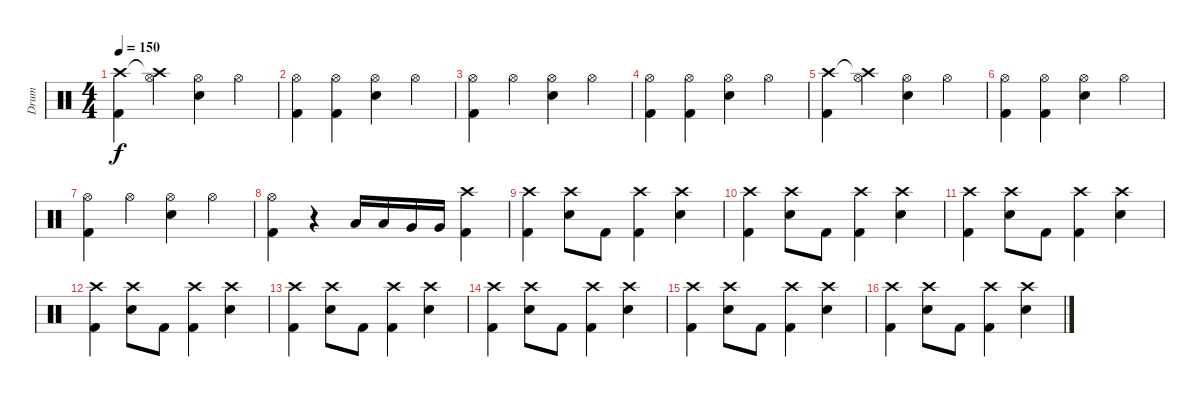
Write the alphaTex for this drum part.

\track ("Drum" "Drum") {instrument percussion}
\staff {score}
\articulation defaults
\ts (4 4)
\tempo 150
\clef neutral
\ks c
("Crash high (hit)" "Kick (hit) 2").4{dy f} ("Crash high (hit)"{t} "Hi-Hat (open)").4 ("Hi-Hat (open)" "Snare (hit) 2").4 "Hi-Hat (open)".4 |
("Hi-Hat (open)" "Kick (hit) 2").4 ("Hi-Hat (open)" "Kick (hit) 2").4 ("Hi-Hat (open)" "Snare (hit) 2").4 "Hi-Hat (open)".4 |
("Hi-Hat (open)" "Kick (hit) 2").4 "Hi-Hat (open)".4 ("Hi-Hat (open)" "Snare (hit) 2").4 "Hi-Hat (open)".4 |
("Hi-Hat (open)" "Kick (hit) 2").4 ("Hi-Hat (open)" "Kick (hit) 2").4 ("Hi-Hat (open)" "Snare (hit) 2").4 "Hi-Hat (open)".4 |
("Crash high (hit)" "Kick (hit) 2").4 ("Crash high (hit)"{t} "Hi-Hat (open)").4 ("Hi-Hat (open)" "Snare (hit) 2").4 "Hi-Hat (open)".4 |
("Hi-Hat (open)" "Kick (hit) 2").4 ("Hi-Hat (open)" "Kick (hit) 2").4 ("Hi-Hat (open)" "Snare (hit) 2").4 "Hi-Hat (open)".4 |
("Hi-Hat (open)" "Kick (hit) 2").4 "Hi-Hat (open)".4 ("Hi-Hat (open)" "Snare (hit) 2").4 "Hi-Hat (open)".4 |
("Hi-Hat (open)" "Kick (hit) 2").4 r.4 "Low Tom (hit)".16 "Low Tom (hit)".16 "Very Low Tom (hit)".16 "Very Low Tom (hit)".16 ("Crash high (hit)" "Kick (hit) 2").4 |
("Crash high (hit)" "Kick (hit) 2").4 ("Crash high (hit)" "Snare (hit) 2").8 "Kick (hit) 2".8 ("Crash high (hit)" "Kick (hit) 2").4 ("Crash high (hit)" "Snare (hit) 2").4 |
("Crash high (hit)" "Kick (hit) 2").4 ("Crash high (hit)" "Snare (hit) 2").8 "Kick (hit) 2".8 ("Crash high (hit)" "Kick (hit) 2").4 ("Crash high (hit)" "Snare (hit) 2").4 |
("Crash high (hit)" "Kick (hit) 2").4 ("Crash high (hit)" "Snare (hit) 2").8 "Kick (hit) 2".8 ("Crash high (hit)" "Kick (hit) 2").4 ("Crash high (hit)" "Snare (hit) 2").4 |
("Crash high (hit)" "Kick (hit) 2").4 ("Crash high (hit)" "Snare (hit) 2").8 "Kick (hit) 2".8 ("Crash high (hit)" "Kick (hit) 2").4 ("Crash high (hit)" "Snare (hit) 2").4 |
("Crash high (hit)" "Kick (hit) 2").4 ("Crash high (hit)" "Snare (hit) 2").8 "Kick (hit) 2".8 ("Crash high (hit)" "Kick (hit) 2").4 ("Crash high (hit)" "Snare (hit) 2").4 |
("Crash high (hit)" "Kick (hit) 2").4 ("Crash high (hit)" "Snare (hit) 2").8 "Kick (hit) 2".8 ("Crash high (hit)" "Kick (hit) 2").4 ("Crash high (hit)" "Snare (hit) 2").4 |
("Crash high (hit)" "Kick (hit) 2").4 ("Crash high (hit)" "Snare (hit) 2").8 "Kick (hit) 2".8 ("Crash high (hit)" "Kick (hit) 2").4 ("Crash high (hit)" "Snare (hit) 2").4 |
("Crash high (hit)" "Kick (hit) 2").4 ("Crash high (hit)" "Snare (hit) 2").8 "Kick (hit) 2".8 ("Crash high (hit)" "Kick (hit) 2").4 ("Crash high (hit)" "Snare (hit) 2").4
